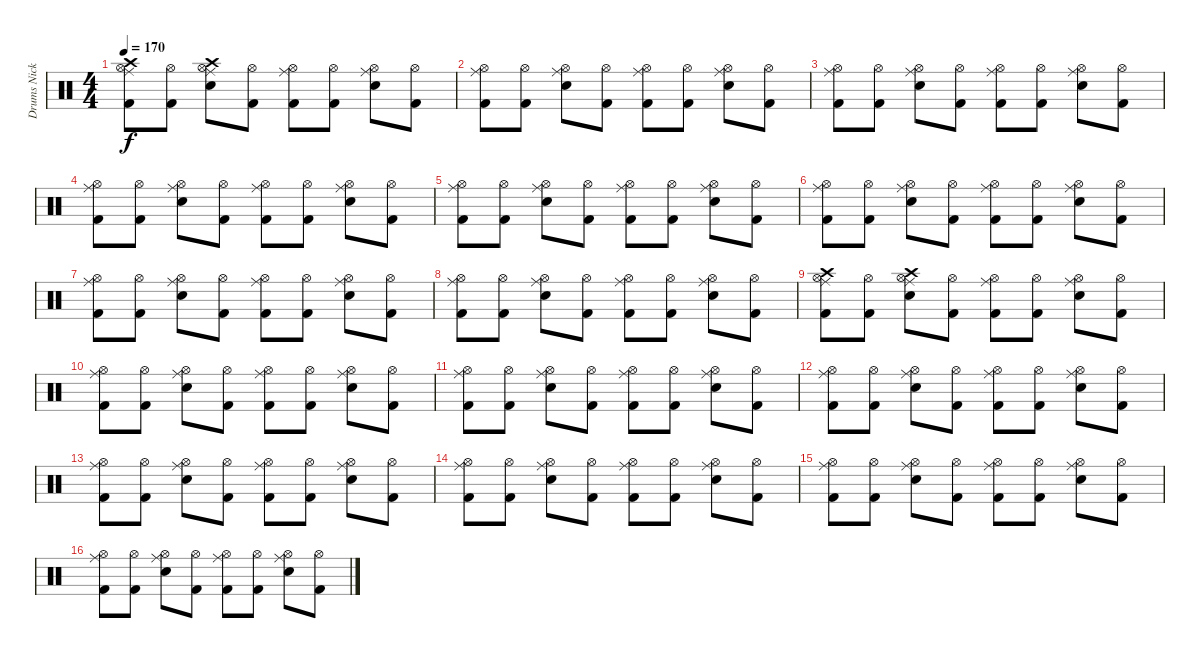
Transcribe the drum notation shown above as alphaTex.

\track ("Drums Nicko McBrain" "Drums Nick") {instrument percussion}
\staff {score}
\articulation defaults
\ts (4 4)
\tempo 170
\clef neutral
\ks c
("Hi-Hat (open)" "Ride (middle)" "Kick (hit) 2" "Crash high (hit)").8{dy f} ("Hi-Hat (open)" "Kick (hit) 2").8 ("Hi-Hat (open)" "Ride (middle)" "Snare (hit) 2" "Crash high (hit)").8 ("Hi-Hat (open)" "Kick (hit) 2").8 ("Hi-Hat (open)" "Ride (middle)" "Kick (hit) 2").8 ("Hi-Hat (open)" "Kick (hit) 2").8 ("Hi-Hat (open)" "Ride (middle)" "Snare (hit) 2").8 ("Hi-Hat (open)" "Kick (hit) 2").8 |
("Hi-Hat (open)" "Ride (middle)" "Kick (hit) 2").8 ("Hi-Hat (open)" "Kick (hit) 2").8 ("Hi-Hat (open)" "Ride (middle)" "Snare (hit) 2").8 ("Hi-Hat (open)" "Kick (hit) 2").8 ("Hi-Hat (open)" "Ride (middle)" "Kick (hit) 2").8 ("Hi-Hat (open)" "Kick (hit) 2").8 ("Hi-Hat (open)" "Ride (middle)" "Snare (hit) 2").8 ("Hi-Hat (open)" "Kick (hit) 2").8 |
("Hi-Hat (open)" "Ride (middle)" "Kick (hit) 2").8 ("Hi-Hat (open)" "Kick (hit) 2").8 ("Hi-Hat (open)" "Ride (middle)" "Snare (hit) 2").8 ("Hi-Hat (open)" "Kick (hit) 2").8 ("Hi-Hat (open)" "Ride (middle)" "Kick (hit) 2").8 ("Hi-Hat (open)" "Kick (hit) 2").8 ("Hi-Hat (open)" "Ride (middle)" "Snare (hit) 2").8 ("Hi-Hat (open)" "Kick (hit) 2").8 |
("Hi-Hat (open)" "Ride (middle)" "Kick (hit) 2").8 ("Hi-Hat (open)" "Kick (hit) 2").8 ("Hi-Hat (open)" "Ride (middle)" "Snare (hit) 2").8 ("Hi-Hat (open)" "Kick (hit) 2").8 ("Hi-Hat (open)" "Ride (middle)" "Kick (hit) 2").8 ("Hi-Hat (open)" "Kick (hit) 2").8 ("Hi-Hat (open)" "Ride (middle)" "Snare (hit) 2").8 ("Hi-Hat (open)" "Kick (hit) 2").8 |
("Hi-Hat (open)" "Ride (middle)" "Kick (hit) 2").8 ("Hi-Hat (open)" "Kick (hit) 2").8 ("Hi-Hat (open)" "Ride (middle)" "Snare (hit) 2").8 ("Hi-Hat (open)" "Kick (hit) 2").8 ("Hi-Hat (open)" "Ride (middle)" "Kick (hit) 2").8 ("Hi-Hat (open)" "Kick (hit) 2").8 ("Hi-Hat (open)" "Ride (middle)" "Snare (hit) 2").8 ("Hi-Hat (open)" "Kick (hit) 2").8 |
("Hi-Hat (open)" "Ride (middle)" "Kick (hit) 2").8 ("Hi-Hat (open)" "Kick (hit) 2").8 ("Hi-Hat (open)" "Ride (middle)" "Snare (hit) 2").8 ("Hi-Hat (open)" "Kick (hit) 2").8 ("Hi-Hat (open)" "Ride (middle)" "Kick (hit) 2").8 ("Hi-Hat (open)" "Kick (hit) 2").8 ("Hi-Hat (open)" "Ride (middle)" "Snare (hit) 2").8 ("Hi-Hat (open)" "Kick (hit) 2").8 |
("Hi-Hat (open)" "Ride (middle)" "Kick (hit) 2").8 ("Hi-Hat (open)" "Kick (hit) 2").8 ("Hi-Hat (open)" "Ride (middle)" "Snare (hit) 2").8 ("Hi-Hat (open)" "Kick (hit) 2").8 ("Hi-Hat (open)" "Ride (middle)" "Kick (hit) 2").8 ("Hi-Hat (open)" "Kick (hit) 2").8 ("Hi-Hat (open)" "Ride (middle)" "Snare (hit) 2").8 ("Hi-Hat (open)" "Kick (hit) 2").8 |
("Hi-Hat (open)" "Ride (middle)" "Kick (hit) 2").8 ("Hi-Hat (open)" "Kick (hit) 2").8 ("Hi-Hat (open)" "Ride (middle)" "Snare (hit) 2").8 ("Hi-Hat (open)" "Kick (hit) 2").8 ("Hi-Hat (open)" "Ride (middle)" "Kick (hit) 2").8 ("Hi-Hat (open)" "Kick (hit) 2").8 ("Hi-Hat (open)" "Ride (middle)" "Snare (hit) 2").8 ("Hi-Hat (open)" "Kick (hit) 2").8 |
("Hi-Hat (open)" "Ride (middle)" "Kick (hit) 2" "Crash high (hit)").8 ("Hi-Hat (open)" "Kick (hit) 2").8 ("Hi-Hat (open)" "Ride (middle)" "Snare (hit) 2" "Crash high (hit)").8 ("Hi-Hat (open)" "Kick (hit) 2").8 ("Hi-Hat (open)" "Ride (middle)" "Kick (hit) 2").8 ("Hi-Hat (open)" "Kick (hit) 2").8 ("Hi-Hat (open)" "Ride (middle)" "Snare (hit) 2").8 ("Hi-Hat (open)" "Kick (hit) 2").8 |
("Hi-Hat (open)" "Ride (middle)" "Kick (hit) 2").8 ("Hi-Hat (open)" "Kick (hit) 2").8 ("Hi-Hat (open)" "Ride (middle)" "Snare (hit) 2").8 ("Hi-Hat (open)" "Kick (hit) 2").8 ("Hi-Hat (open)" "Ride (middle)" "Kick (hit) 2").8 ("Hi-Hat (open)" "Kick (hit) 2").8 ("Hi-Hat (open)" "Ride (middle)" "Snare (hit) 2").8 ("Hi-Hat (open)" "Kick (hit) 2").8 |
("Hi-Hat (open)" "Ride (middle)" "Kick (hit) 2").8 ("Hi-Hat (open)" "Kick (hit) 2").8 ("Hi-Hat (open)" "Ride (middle)" "Snare (hit) 2").8 ("Hi-Hat (open)" "Kick (hit) 2").8 ("Hi-Hat (open)" "Ride (middle)" "Kick (hit) 2").8 ("Hi-Hat (open)" "Kick (hit) 2").8 ("Hi-Hat (open)" "Ride (middle)" "Snare (hit) 2").8 ("Hi-Hat (open)" "Kick (hit) 2").8 |
("Hi-Hat (open)" "Ride (middle)" "Kick (hit) 2").8 ("Hi-Hat (open)" "Kick (hit) 2").8 ("Hi-Hat (open)" "Ride (middle)" "Snare (hit) 2").8 ("Hi-Hat (open)" "Kick (hit) 2").8 ("Hi-Hat (open)" "Ride (middle)" "Kick (hit) 2").8 ("Hi-Hat (open)" "Kick (hit) 2").8 ("Hi-Hat (open)" "Ride (middle)" "Snare (hit) 2").8 ("Hi-Hat (open)" "Kick (hit) 2").8 |
("Hi-Hat (open)" "Ride (middle)" "Kick (hit) 2").8 ("Hi-Hat (open)" "Kick (hit) 2").8 ("Hi-Hat (open)" "Ride (middle)" "Snare (hit) 2").8 ("Hi-Hat (open)" "Kick (hit) 2").8 ("Hi-Hat (open)" "Ride (middle)" "Kick (hit) 2").8 ("Hi-Hat (open)" "Kick (hit) 2").8 ("Hi-Hat (open)" "Ride (middle)" "Snare (hit) 2").8 ("Hi-Hat (open)" "Kick (hit) 2").8 |
("Hi-Hat (open)" "Ride (middle)" "Kick (hit) 2").8 ("Hi-Hat (open)" "Kick (hit) 2").8 ("Hi-Hat (open)" "Ride (middle)" "Snare (hit) 2").8 ("Hi-Hat (open)" "Kick (hit) 2").8 ("Hi-Hat (open)" "Ride (middle)" "Kick (hit) 2").8 ("Hi-Hat (open)" "Kick (hit) 2").8 ("Hi-Hat (open)" "Ride (middle)" "Snare (hit) 2").8 ("Hi-Hat (open)" "Kick (hit) 2").8 |
("Hi-Hat (open)" "Ride (middle)" "Kick (hit) 2").8 ("Hi-Hat (open)" "Kick (hit) 2").8 ("Hi-Hat (open)" "Ride (middle)" "Snare (hit) 2").8 ("Hi-Hat (open)" "Kick (hit) 2").8 ("Hi-Hat (open)" "Ride (middle)" "Kick (hit) 2").8 ("Hi-Hat (open)" "Kick (hit) 2").8 ("Hi-Hat (open)" "Ride (middle)" "Snare (hit) 2").8 ("Hi-Hat (open)" "Kick (hit) 2").8 |
("Hi-Hat (open)" "Ride (middle)" "Kick (hit) 2").8 ("Hi-Hat (open)" "Kick (hit) 2").8 ("Hi-Hat (open)" "Ride (middle)" "Snare (hit) 2").8 ("Hi-Hat (open)" "Kick (hit) 2").8 ("Hi-Hat (open)" "Ride (middle)" "Kick (hit) 2").8 ("Hi-Hat (open)" "Kick (hit) 2").8 ("Hi-Hat (open)" "Ride (middle)" "Snare (hit) 2").8 ("Hi-Hat (open)" "Kick (hit) 2").8
